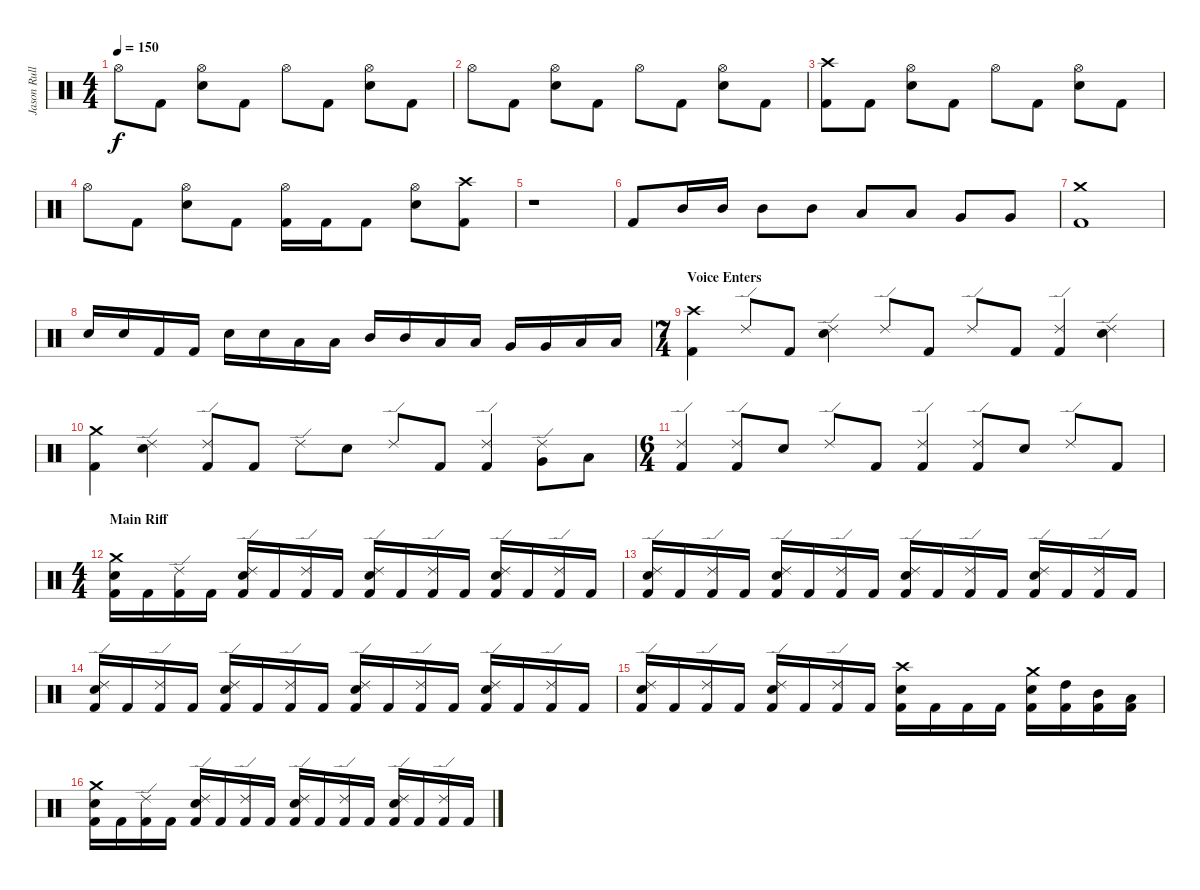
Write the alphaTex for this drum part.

\track ("Jason Rullo" "Jason Rull") {instrument percussion}
\staff {score}
\articulation defaults
\ts (4 4)
\tempo 150
\clef neutral
\ks c "Hi-Hat (open)".8{dy f} "Kick (hit) 2".8
("Hi-Hat (open)" "Electric Snare (hit)").8 "Kick (hit) 2".8 "Hi-Hat (open)".8 "Kick (hit) 2".8 ("Hi-Hat (open)" "Electric Snare (hit)").8 "Kick (hit) 2".8 |
"Hi-Hat (open)".8 "Kick (hit) 2".8 ("Hi-Hat (open)" "Electric Snare (hit)").8 "Kick (hit) 2".8 "Hi-Hat (open)".8 "Kick (hit) 2".8 ("Hi-Hat (open)" "Electric Snare (hit)").8 "Kick (hit) 2".8 |
("Crash high (hit)" "Kick (hit) 2").8 "Kick (hit) 2".8 ("Hi-Hat (open)" "Electric Snare (hit)").8 "Kick (hit) 2".8 "Hi-Hat (open)".8 "Kick (hit) 2".8 ("Hi-Hat (open)" "Electric Snare (hit)").8 "Kick (hit) 2".8 |
"Hi-Hat (open)".8 "Kick (hit) 2".8 ("Hi-Hat (open)" "Electric Snare (hit)").8 "Kick (hit) 2".8 ("Hi-Hat (open)" "Kick (hit) 2").16 "Kick (hit) 2".16 "Kick (hit) 2".8 ("Hi-Hat (open)" "Electric Snare (hit)").8 ("Crash high (hit)" "Kick (hit) 2").8 |
r.1 |
"Kick (hit) 2".8 "Mid Tom (hit)".16 "Mid Tom (hit)".16 "Mid Tom (hit)".8 "Mid Tom (hit)".8 "Low Tom (hit)".8 "Low Tom (hit)".8 "Very Low Tom (hit)".8 "Very Low Tom (hit)".8 |
("Crash medium (hit)" "Kick (hit) 2").1 |
"Electric Snare (hit)".16 "Electric Snare (hit)".16 "Kick (hit) 2".16 "Kick (hit) 2".16 "Electric Snare (hit)".16 "Electric Snare (hit)".16 "Low Tom (hit)".16 "Low Tom (hit)".16 "Mid Tom (hit)".16 "Mid Tom (hit)".16 "Low Tom (hit)".16 "Low Tom (hit)".16 "Very Low Tom (hit)".16 "Very Low Tom (hit)".16 "Low Floor Tom (hit)".16 "Low Floor Tom (hit)".16 |
\ts (7 4)
\section ("" "Voice Enters")
("Crash high (hit)" "Kick (hit) 2").4{volume 16 balance 8} "Ride (edge) 2".8 "Kick (hit) 2".8 ("Ride (edge) 2" "Electric Snare (hit)").4 "Ride (edge) 2".8 "Kick (hit) 2".8 "Ride (edge) 2".8 "Kick (hit) 2".8 ("Ride (edge) 2" "Kick (hit) 2").4 ("Ride (edge) 2" "Electric Snare (hit)").4 |
("Crash medium (hit)" "Kick (hit) 2").4 ("Ride (edge) 2" "Electric Snare (hit)").4 ("Ride (edge) 2" "Kick (hit) 2").8 "Kick (hit) 2".8 "Ride (edge) 2".8 "Electric Snare (hit)".8 "Ride (edge) 2".8 "Kick (hit) 2".8 ("Ride (edge) 2" "Kick (hit) 2").4 ("Ride (edge) 2" "Very Low Tom (hit)").8 "Low Floor Tom (hit)".8 |
\ts (6 4)
("Ride (edge) 2" "Kick (hit) 2").4 ("Ride (edge) 2" "Kick (hit) 2").8 "Electric Snare (hit)".8 "Ride (edge) 2".8 "Kick (hit) 2".8 ("Ride (edge) 2" "Kick (hit) 2").4 ("Ride (edge) 2" "Kick (hit) 2").8 "Electric Snare (hit)".8 "Ride (edge) 2".8 "Kick (hit) 2".8 |
\ts (4 4)
\section ("" "Main Riff")
("Crash medium (hit)" "Electric Snare (hit)" "Kick (hit) 2").16 "Kick (hit) 2".16 ("Ride (edge) 2" "Kick (hit) 2").16 "Kick (hit) 2".16 ("Ride (edge) 2" "Electric Snare (hit)" "Kick (hit) 2").16 "Kick (hit) 2".16 ("Ride (edge) 2" "Kick (hit) 2").16 "Kick (hit) 2".16 ("Ride (edge) 2" "Electric Snare (hit)" "Kick (hit) 2").16 "Kick (hit) 2".16 ("Ride (edge) 2" "Kick (hit) 2").16 "Kick (hit) 2".16 ("Ride (edge) 2" "Electric Snare (hit)" "Kick (hit) 2").16 "Kick (hit) 2".16 ("Ride (edge) 2" "Kick (hit) 2").16 "Kick (hit) 2".16 |
("Ride (edge) 2" "Electric Snare (hit)" "Kick (hit) 2").16 "Kick (hit) 2".16 ("Ride (edge) 2" "Kick (hit) 2").16 "Kick (hit) 2".16 ("Ride (edge) 2" "Electric Snare (hit)" "Kick (hit) 2").16 "Kick (hit) 2".16 ("Ride (edge) 2" "Kick (hit) 2").16 "Kick (hit) 2".16 ("Ride (edge) 2" "Electric Snare (hit)" "Kick (hit) 2").16 "Kick (hit) 2".16 ("Ride (edge) 2" "Kick (hit) 2").16 "Kick (hit) 2".16 ("Ride (edge) 2" "Electric Snare (hit)" "Kick (hit) 2").16 "Kick (hit) 2".16 ("Ride (edge) 2" "Kick (hit) 2").16 "Kick (hit) 2".16 |
("Ride (edge) 2" "Electric Snare (hit)" "Kick (hit) 2").16 "Kick (hit) 2".16 ("Ride (edge) 2" "Kick (hit) 2").16 "Kick (hit) 2".16 ("Ride (edge) 2" "Electric Snare (hit)" "Kick (hit) 2").16 "Kick (hit) 2".16 ("Ride (edge) 2" "Kick (hit) 2").16 "Kick (hit) 2".16 ("Ride (edge) 2" "Electric Snare (hit)" "Kick (hit) 2").16 "Kick (hit) 2".16 ("Ride (edge) 2" "Kick (hit) 2").16 "Kick (hit) 2".16 ("Ride (edge) 2" "Electric Snare (hit)" "Kick (hit) 2").16 "Kick (hit) 2".16 ("Ride (edge) 2" "Kick (hit) 2").16 "Kick (hit) 2".16 |
("Ride (edge) 2" "Electric Snare (hit)" "Kick (hit) 2").16 "Kick (hit) 2".16 ("Ride (edge) 2" "Kick (hit) 2").16 "Kick (hit) 2".16 ("Ride (edge) 2" "Electric Snare (hit)" "Kick (hit) 2").16 "Kick (hit) 2".16 ("Ride (edge) 2" "Kick (hit) 2").16 "Kick (hit) 2".16 ("Crash high (hit)" "Electric Snare (hit)" "Kick (hit) 2").16 "Kick (hit) 2".16 "Kick (hit) 2".16 "Kick (hit) 2".16 ("Crash medium (hit)" "Electric Snare (hit)" "Kick (hit) 2").16 ("High Tom (hit)" "Kick (hit) 2").16 ("Mid Tom (hit)" "Kick (hit) 2").16 ("Low Tom (hit)" "Kick (hit) 2").16 |
("Crash medium (hit)" "Electric Snare (hit)" "Kick (hit) 2").16 "Kick (hit) 2".16 ("Ride (edge) 2" "Kick (hit) 2").16 "Kick (hit) 2".16 ("Ride (edge) 2" "Electric Snare (hit)" "Kick (hit) 2").16 "Kick (hit) 2".16 ("Ride (edge) 2" "Kick (hit) 2").16 "Kick (hit) 2".16 ("Ride (edge) 2" "Electric Snare (hit)" "Kick (hit) 2").16 "Kick (hit) 2".16 ("Ride (edge) 2" "Kick (hit) 2").16 "Kick (hit) 2".16 ("Ride (edge) 2" "Electric Snare (hit)" "Kick (hit) 2").16 "Kick (hit) 2".16 ("Ride (edge) 2" "Kick (hit) 2").16 "Kick (hit) 2".16
